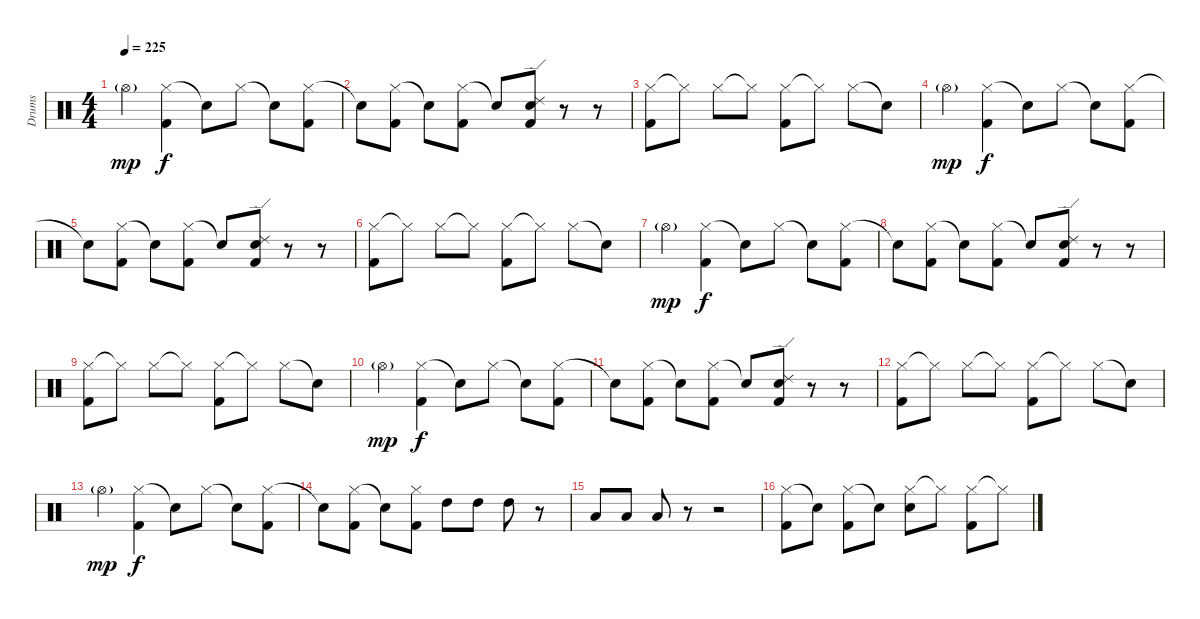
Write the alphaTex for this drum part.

\track ("Drums" "Drums") {instrument percussion}
\staff {score}
\articulation defaults
\ts (4 4)
\tempo 225
\clef neutral
\ks c "Hi-Hat (open)"{g}.4{dy mp}
("Hi-Hat (closed)" "Kick (hit) 2").4{dy f} "Snare (hit)"{t}.8 "Hi-Hat (closed)".8 "Snare (hit)"{t}.8 ("Hi-Hat (closed)" "Kick (hit) 2").8 |
"Snare (hit)"{t}.8 ("Hi-Hat (closed)" "Kick (hit) 2").8 "Snare (hit)"{t}.8 ("Hi-Hat (closed)" "Kick (hit) 2").8 "Snare (hit)"{t}.8 ("Ride (edge) 2" "Snare (hit) 2" "Kick (hit) 2").8 r.8 r.8 |
("Hi-Hat (closed)" "Kick (hit) 2").8 "Hi-Hat (closed)"{t}.8 "Hi-Hat (closed)".8 "Hi-Hat (closed)"{t}.8 ("Hi-Hat (closed)" "Kick (hit) 2").8 "Hi-Hat (closed)"{t}.8 "Hi-Hat (closed)".8 "Snare (hit)"{t}.8 |
"Hi-Hat (open)"{g}.4{dy mp} ("Hi-Hat (closed)" "Kick (hit) 2").4{dy f} "Snare (hit)"{t}.8 "Hi-Hat (closed)".8 "Snare (hit)"{t}.8 ("Hi-Hat (closed)" "Kick (hit) 2").8 |
"Snare (hit)"{t}.8 ("Hi-Hat (closed)" "Kick (hit) 2").8 "Snare (hit)"{t}.8 ("Hi-Hat (closed)" "Kick (hit) 2").8 "Snare (hit)"{t}.8 ("Ride (edge) 2" "Snare (hit) 2" "Kick (hit) 2").8 r.8 r.8 |
("Hi-Hat (closed)" "Kick (hit) 2").8 "Hi-Hat (closed)"{t}.8 "Hi-Hat (closed)".8 "Hi-Hat (closed)"{t}.8 ("Hi-Hat (closed)" "Kick (hit) 2").8 "Hi-Hat (closed)"{t}.8 "Hi-Hat (closed)".8 "Snare (hit)"{t}.8 |
"Hi-Hat (open)"{g}.4{dy mp} ("Hi-Hat (closed)" "Kick (hit) 2").4{dy f} "Snare (hit)"{t}.8 "Hi-Hat (closed)".8 "Snare (hit)"{t}.8 ("Hi-Hat (closed)" "Kick (hit) 2").8 |
"Snare (hit)"{t}.8 ("Hi-Hat (closed)" "Kick (hit) 2").8 "Snare (hit)"{t}.8 ("Hi-Hat (closed)" "Kick (hit) 2").8 "Snare (hit)"{t}.8 ("Ride (edge) 2" "Snare (hit) 2" "Kick (hit) 2").8 r.8 r.8 |
("Hi-Hat (closed)" "Kick (hit) 2").8 "Hi-Hat (closed)"{t}.8 "Hi-Hat (closed)".8 "Hi-Hat (closed)"{t}.8 ("Hi-Hat (closed)" "Kick (hit) 2").8 "Hi-Hat (closed)"{t}.8 "Hi-Hat (closed)".8 "Snare (hit)"{t}.8 |
"Hi-Hat (open)"{g}.4{dy mp} ("Hi-Hat (closed)" "Kick (hit) 2").4{dy f} "Snare (hit)"{t}.8 "Hi-Hat (closed)".8 "Snare (hit)"{t}.8 ("Hi-Hat (closed)" "Kick (hit) 2").8 |
"Snare (hit)"{t}.8 ("Hi-Hat (closed)" "Kick (hit) 2").8 "Snare (hit)"{t}.8 ("Hi-Hat (closed)" "Kick (hit) 2").8 "Snare (hit)"{t}.8 ("Ride (edge) 2" "Snare (hit) 2" "Kick (hit) 2").8 r.8 r.8 |
("Hi-Hat (closed)" "Kick (hit) 2").8 "Hi-Hat (closed)"{t}.8 "Hi-Hat (closed)".8 "Hi-Hat (closed)"{t}.8 ("Hi-Hat (closed)" "Kick (hit) 2").8 "Hi-Hat (closed)"{t}.8 "Hi-Hat (closed)".8 "Snare (hit)"{t}.8 |
"Hi-Hat (open)"{g}.4{dy mp} ("Hi-Hat (closed)" "Kick (hit) 2").4{dy f} "Snare (hit)"{t}.8 "Hi-Hat (closed)".8 "Snare (hit)"{t}.8 ("Hi-Hat (closed)" "Kick (hit) 2").8 |
"Snare (hit)"{t}.8 ("Hi-Hat (closed)" "Kick (hit) 2").8 "Snare (hit)"{t}.8 ("Hi-Hat (closed)" "Kick (hit) 2").8 "High Tom (hit)".8 "High Tom (hit)".8 "High Tom (hit)".8 r.8 |
"Low Tom (hit)".8 "Low Tom (hit)".8 "Low Tom (hit)".8 r.8 r.2 |
("Hi-Hat (closed)" "Kick (hit) 2").8 "Snare (hit)"{t}.8 ("Hi-Hat (closed)" "Kick (hit) 2").8 "Snare (hit)"{t}.8 ("Hi-Hat (closed)" "Snare (hit) 2").8 "Hi-Hat (closed)"{t}.8 ("Hi-Hat (closed)" "Kick (hit) 2").8 "Hi-Hat (closed)"{t}.8
